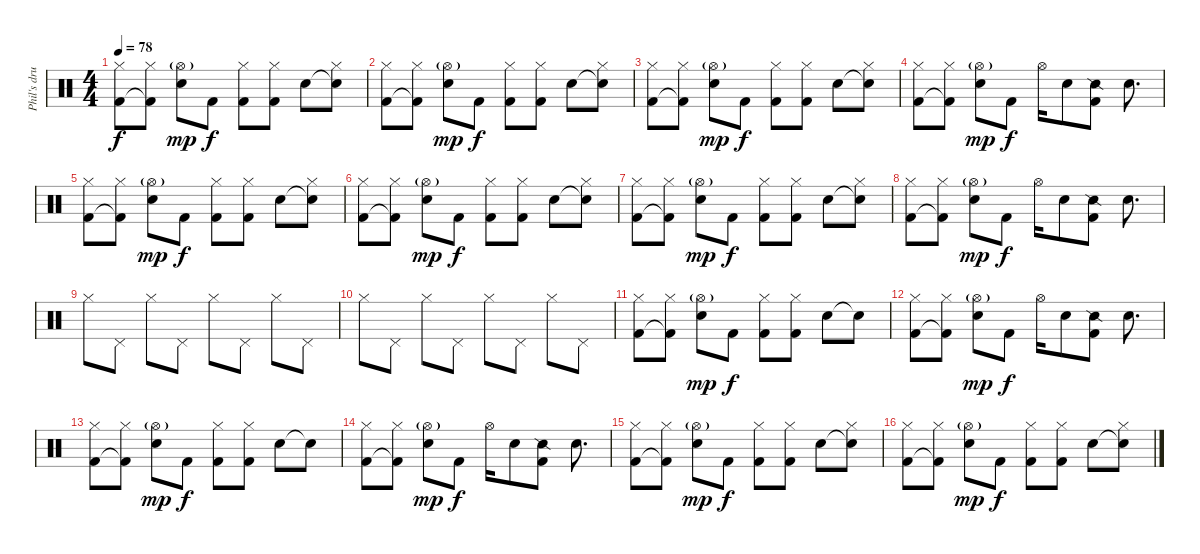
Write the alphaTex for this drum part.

\track ("Phil's drums" "Phil's dru") {instrument percussion}
\staff {score}
\articulation defaults
\ts (4 4)
\tempo 78
\clef neutral
\ks c
("Kick (hit) 2" "Hi-Hat (closed)").8{dy f} ("Kick (hit) 2"{t} "Hi-Hat (closed)").8 ("Snare (hit) 2" "Hi-Hat (open)"{g}).8{dy mp} "Kick (hit) 2".8{dy f} ("Kick (hit) 2" "Hi-Hat (closed)").8 ("Kick (hit) 2" "Hi-Hat (closed)").8 "Snare (hit) 2".8 ("Snare (hit) 2"{t} "Hi-Hat (closed)").8 |
("Kick (hit) 2" "Hi-Hat (closed)").8 ("Kick (hit) 2"{t} "Hi-Hat (closed)").8 ("Snare (hit) 2" "Hi-Hat (open)"{g}).8{dy mp} "Kick (hit) 2".8{dy f} ("Kick (hit) 2" "Hi-Hat (closed)").8 ("Kick (hit) 2" "Hi-Hat (closed)").8 "Snare (hit) 2".8 ("Snare (hit) 2"{t} "Hi-Hat (closed)").8 |
("Kick (hit) 2" "Hi-Hat (closed)").8 ("Kick (hit) 2"{t} "Hi-Hat (closed)").8 ("Snare (hit) 2" "Hi-Hat (open)"{g}).8{dy mp} "Kick (hit) 2".8{dy f} ("Kick (hit) 2" "Hi-Hat (closed)").8 ("Kick (hit) 2" "Hi-Hat (closed)").8 "Snare (hit) 2".8 ("Snare (hit) 2"{t} "Hi-Hat (closed)").8 |
("Kick (hit) 2" "Hi-Hat (closed)").8 ("Kick (hit) 2"{t} "Hi-Hat (closed)").8 ("Snare (hit) 2" "Hi-Hat (open)"{g}).8{dy mp} "Kick (hit) 2".8{dy f} "Hi-Hat (open)".16 "Snare (hit) 2".8 ("Snare (side stick) 2" "Kick (hit) 2").8 "Snare (hit) 2".8{d} |
("Kick (hit) 2" "Hi-Hat (closed)").8 ("Kick (hit) 2"{t} "Hi-Hat (closed)").8 ("Snare (hit) 2" "Hi-Hat (open)"{g}).8{dy mp} "Kick (hit) 2".8{dy f} ("Kick (hit) 2" "Hi-Hat (closed)").8 ("Kick (hit) 2" "Hi-Hat (closed)").8 "Snare (hit) 2".8 ("Snare (hit) 2"{t} "Hi-Hat (closed)").8 |
("Kick (hit) 2" "Hi-Hat (closed)").8 ("Kick (hit) 2"{t} "Hi-Hat (closed)").8 ("Snare (hit) 2" "Hi-Hat (open)"{g}).8{dy mp} "Kick (hit) 2".8{dy f} ("Kick (hit) 2" "Hi-Hat (closed)").8 ("Kick (hit) 2" "Hi-Hat (closed)").8 "Snare (hit) 2".8 ("Snare (hit) 2"{t} "Hi-Hat (closed)").8 |
("Kick (hit) 2" "Hi-Hat (closed)").8 ("Kick (hit) 2"{t} "Hi-Hat (closed)").8 ("Snare (hit) 2" "Hi-Hat (open)"{g}).8{dy mp} "Kick (hit) 2".8{dy f} ("Kick (hit) 2" "Hi-Hat (closed)").8 ("Kick (hit) 2" "Hi-Hat (closed)").8 "Snare (hit) 2".8 ("Snare (hit) 2"{t} "Hi-Hat (closed)").8 |
("Kick (hit) 2" "Hi-Hat (closed)").8 ("Kick (hit) 2"{t} "Hi-Hat (closed)").8 ("Snare (hit) 2" "Hi-Hat (open)"{g}).8{dy mp} "Kick (hit) 2".8{dy f} "Hi-Hat (open)".16 "Snare (hit) 2".8 ("Snare (side stick) 2" "Kick (hit) 2").8 "Snare (hit) 2".8{d} |
"Hi-Hat (closed)".8 "Pedal Hi-Hat (hit)".8 "Hi-Hat (closed)".8 "Pedal Hi-Hat (hit)".8 "Hi-Hat (closed)".8 "Pedal Hi-Hat (hit)".8 "Hi-Hat (closed)".8 "Pedal Hi-Hat (hit)".8 |
"Hi-Hat (closed)".8 "Pedal Hi-Hat (hit)".8 "Hi-Hat (closed)".8 "Pedal Hi-Hat (hit)".8 "Hi-Hat (closed)".8 "Pedal Hi-Hat (hit)".8 "Hi-Hat (closed)".8 "Pedal Hi-Hat (hit)".8 |
("Kick (hit) 2" "Hi-Hat (closed)").8 ("Kick (hit) 2"{t} "Hi-Hat (closed)").8 ("Snare (hit) 2" "Hi-Hat (open)"{g}).8{dy mp} "Kick (hit) 2".8{dy f} ("Kick (hit) 2" "Hi-Hat (closed)").8 ("Kick (hit) 2" "Hi-Hat (closed)").8 "Snare (hit) 2".8 "Snare (hit) 2"{t}.8 |
("Kick (hit) 2" "Hi-Hat (closed)").8 ("Kick (hit) 2"{t} "Hi-Hat (closed)").8 ("Snare (hit) 2" "Hi-Hat (open)"{g}).8{dy mp} "Kick (hit) 2".8{dy f} "Hi-Hat (open)".16 "Snare (hit) 2".8 ("Snare (side stick) 2" "Kick (hit) 2").8 "Snare (hit) 2".8{d} |
("Kick (hit) 2" "Hi-Hat (closed)").8 ("Kick (hit) 2"{t} "Hi-Hat (closed)").8 ("Snare (hit) 2" "Hi-Hat (open)"{g}).8{dy mp} "Kick (hit) 2".8{dy f} ("Kick (hit) 2" "Hi-Hat (closed)").8 ("Kick (hit) 2" "Hi-Hat (closed)").8 "Snare (hit) 2".8 "Snare (hit) 2"{t}.8 |
("Kick (hit) 2" "Hi-Hat (closed)").8 ("Kick (hit) 2"{t} "Hi-Hat (closed)").8 ("Snare (hit) 2" "Hi-Hat (open)"{g}).8{dy mp} "Kick (hit) 2".8{dy f} "Hi-Hat (open)".16 "Snare (hit) 2".8 ("Snare (side stick) 2" "Kick (hit) 2").8 "Snare (hit) 2".8{d} |
("Kick (hit) 2" "Hi-Hat (closed)").8 ("Kick (hit) 2"{t} "Hi-Hat (closed)").8 ("Snare (hit) 2" "Hi-Hat (open)"{g}).8{dy mp} "Kick (hit) 2".8{dy f} ("Kick (hit) 2" "Hi-Hat (closed)").8 ("Kick (hit) 2" "Hi-Hat (closed)").8 "Snare (hit) 2".8 ("Snare (hit) 2"{t} "Hi-Hat (closed)").8 |
("Kick (hit) 2" "Hi-Hat (closed)").8 ("Kick (hit) 2"{t} "Hi-Hat (closed)").8 ("Snare (hit) 2" "Hi-Hat (open)"{g}).8{dy mp} "Kick (hit) 2".8{dy f} ("Kick (hit) 2" "Hi-Hat (closed)").8 ("Kick (hit) 2" "Hi-Hat (closed)").8 "Snare (hit) 2".8 ("Snare (hit) 2"{t} "Hi-Hat (closed)").8
